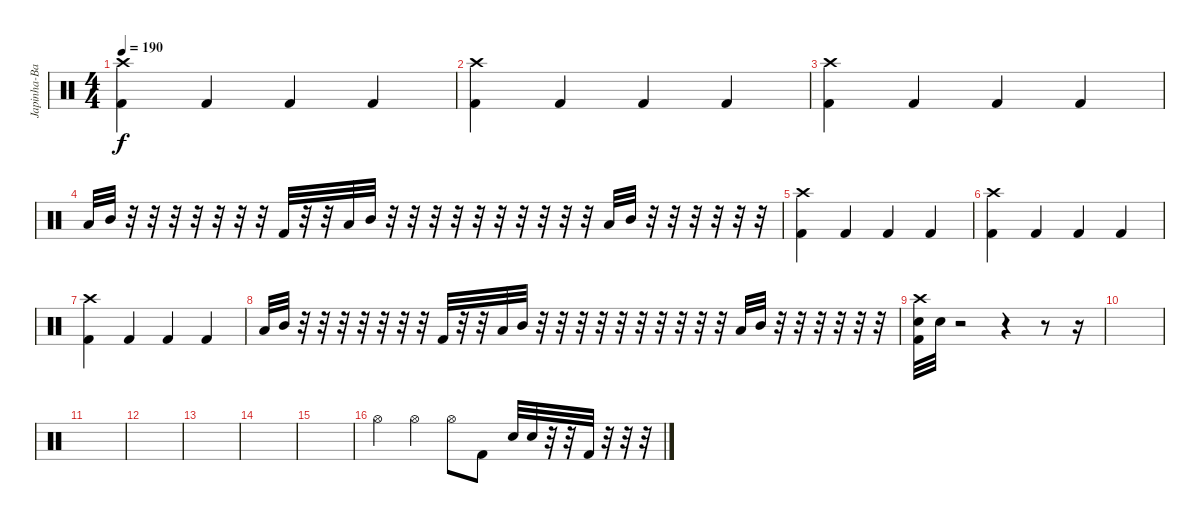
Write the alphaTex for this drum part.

\track ("Japinha-Batera" "Japinha-Ba") {instrument percussion}
\staff {score}
\articulation defaults
\ts (4 4)
\tempo 190
\clef neutral
\ks c
("Crash high (hit)" "Kick (hit) 2").4{dy f} "Kick (hit) 2".4 "Kick (hit) 2".4 "Kick (hit) 2".4 |
("Crash high (hit)" "Kick (hit) 2").4 "Kick (hit) 2".4 "Kick (hit) 2".4 "Kick (hit) 2".4 |
("Crash high (hit)" "Kick (hit) 2").4 "Kick (hit) 2".4 "Kick (hit) 2".4 "Kick (hit) 2".4 |
"Low Tom (hit)".32 "Mid Tom (hit)".32 r.32 r.32 r.32 r.32 r.32 r.32 r.32 "Kick (hit) 2".32 r.32 r.32 "Low Tom (hit)".32 "Mid Tom (hit)".32 r.32 r.32 r.32 r.32 r.32 r.32 r.32 r.32 r.32 r.32 "Low Tom (hit)".32 "Mid Tom (hit)".32 r.32 r.32 r.32 r.32 r.32 r.32 |
("Crash high (hit)" "Kick (hit) 2").4 "Kick (hit) 2".4 "Kick (hit) 2".4 "Kick (hit) 2".4 |
("Crash high (hit)" "Kick (hit) 2").4 "Kick (hit) 2".4 "Kick (hit) 2".4 "Kick (hit) 2".4 |
("Crash high (hit)" "Kick (hit) 2").4 "Kick (hit) 2".4 "Kick (hit) 2".4 "Kick (hit) 2".4 |
"Low Tom (hit)".32 "Mid Tom (hit)".32 r.32 r.32 r.32 r.32 r.32 r.32 r.32 "Kick (hit) 2".32 r.32 r.32 "Low Tom (hit)".32 "Mid Tom (hit)".32 r.32 r.32 r.32 r.32 r.32 r.32 r.32 r.32 r.32 r.32 "Low Tom (hit)".32 "Mid Tom (hit)".32 r.32 r.32 r.32 r.32 r.32 r.32 |
("Crash high (hit)" "Electric Snare (hit)" "Kick (hit) 2").32 "Electric Snare (hit)".32 r.2 r.4 r.8 r.16 |
|
|
|
|
|
|
"Hi-Hat (open)".4 "Hi-Hat (open)".4 "Hi-Hat (open)".8 "Kick (hit) 2".8 "Electric Snare (hit)".32 "Electric Snare (hit)".32 r.32 r.32 "Kick (hit) 2".32 r.32 r.32 r.32
